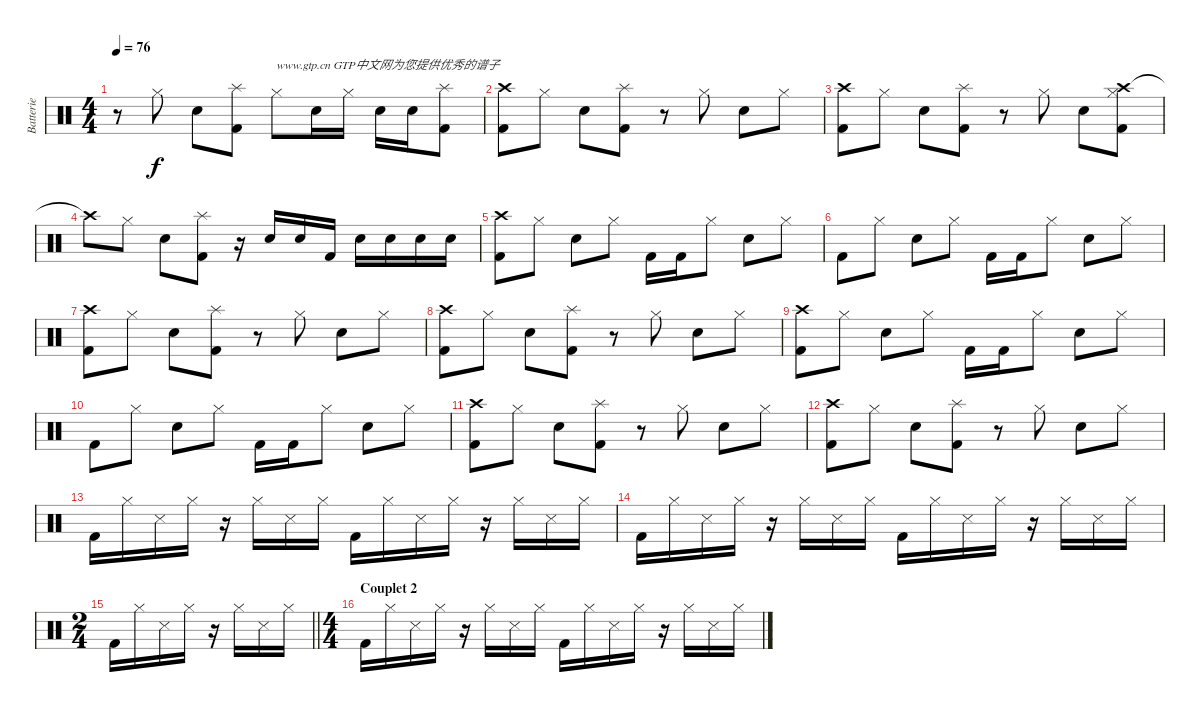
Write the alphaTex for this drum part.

\track ("Batterie" "Batterie") {instrument percussion}
\staff {score}
\articulation defaults
\ts (4 4)
\tempo 76
\clef neutral
\ks c
r.8{dy f} "Hi-Hat (closed)".8 "Electric Snare (hit)".8 ("Splash (hit)" "Kick (hit) 2").8 "Hi-Hat (closed)".8{txt "www.gtp.cn GTP中文网为您提供优秀的谱子"} "Electric Snare (hit)".16 "Hi-Hat (closed)".16 "Electric Snare (hit)".16 "Electric Snare (hit)".16 ("Splash (hit)" "Kick (hit) 2").8 |
("Crash high (hit)" "Kick (hit) 2").8 "Hi-Hat (closed)".8 "Electric Snare (hit)".8 ("Splash (hit)" "Kick (hit) 2").8 r.8 "Hi-Hat (closed)".8 "Electric Snare (hit)".8 "Hi-Hat (closed)".8 |
("Crash high (hit)" "Kick (hit) 2").8 "Hi-Hat (closed)".8 "Electric Snare (hit)".8 ("Splash (hit)" "Kick (hit) 2").8 r.8 "Hi-Hat (closed)".8 "Electric Snare (hit)".8 ("Crash high (hit)" "Hi-Hat (closed)" "Kick (hit) 2").8 |
"Crash high (hit)"{t}.8 "Hi-Hat (closed)".8 "Electric Snare (hit)".8 ("Splash (hit)" "Kick (hit) 2").8 r.16 "Electric Snare (hit)".16 "Electric Snare (hit)".16 "Kick (hit) 2".16 "Electric Snare (hit)".16 "Electric Snare (hit)".16 "Electric Snare (hit)".16 "Electric Snare (hit)".16 |
("Crash high (hit)" "Kick (hit) 2").8 "Hi-Hat (closed)".8 "Electric Snare (hit)".8 "Hi-Hat (closed)".8 "Kick (hit) 2".16 "Kick (hit) 2".16 "Hi-Hat (closed)".8 "Electric Snare (hit)".8 "Hi-Hat (closed)".8 |
"Kick (hit) 2".8 "Hi-Hat (closed)".8 "Electric Snare (hit)".8 "Hi-Hat (closed)".8 "Kick (hit) 2".16 "Kick (hit) 2".16 "Hi-Hat (closed)".8 "Electric Snare (hit)".8 "Hi-Hat (closed)".8 |
("Crash high (hit)" "Kick (hit) 2").8 "Hi-Hat (closed)".8 "Electric Snare (hit)".8 ("Splash (hit)" "Kick (hit) 2").8 r.8 "Hi-Hat (closed)".8 "Electric Snare (hit)".8 "Hi-Hat (closed)".8 |
("Crash high (hit)" "Kick (hit) 2").8 "Hi-Hat (closed)".8 "Electric Snare (hit)".8 ("Splash (hit)" "Kick (hit) 2").8 r.8 "Hi-Hat (closed)".8 "Electric Snare (hit)".8 "Hi-Hat (closed)".8 |
("Crash high (hit)" "Kick (hit) 2").8 "Hi-Hat (closed)".8 "Electric Snare (hit)".8 "Hi-Hat (closed)".8 "Kick (hit) 2".16 "Kick (hit) 2".16 "Hi-Hat (closed)".8 "Electric Snare (hit)".8 "Hi-Hat (closed)".8 |
"Kick (hit) 2".8 "Hi-Hat (closed)".8 "Electric Snare (hit)".8 "Hi-Hat (closed)".8 "Kick (hit) 2".16 "Kick (hit) 2".16 "Hi-Hat (closed)".8 "Electric Snare (hit)".8 "Hi-Hat (closed)".8 |
("Crash high (hit)" "Kick (hit) 2").8 "Hi-Hat (closed)".8 "Electric Snare (hit)".8 ("Splash (hit)" "Kick (hit) 2").8 r.8 "Hi-Hat (closed)".8 "Electric Snare (hit)".8 "Hi-Hat (closed)".8 |
("Crash high (hit)" "Kick (hit) 2").8 "Hi-Hat (closed)".8 "Electric Snare (hit)".8 ("Splash (hit)" "Kick (hit) 2").8 r.8 "Hi-Hat (closed)".8 "Electric Snare (hit)".8 "Hi-Hat (closed)".8 |
"Kick (hit) 2".16 "Hi-Hat (closed)".16 "Snare (side stick) 3".16 "Hi-Hat (closed)".16 r.16 "Hi-Hat (closed)".16 "Snare (side stick) 3".16 "Hi-Hat (closed)".16 "Kick (hit) 2".16 "Hi-Hat (closed)".16 "Snare (side stick) 3".16 "Hi-Hat (closed)".16 r.16 "Hi-Hat (closed)".16 "Snare (side stick) 3".16 "Hi-Hat (closed)".16 |
"Kick (hit) 2".16 "Hi-Hat (closed)".16 "Snare (side stick) 3".16 "Hi-Hat (closed)".16 r.16 "Hi-Hat (closed)".16 "Snare (side stick) 3".16 "Hi-Hat (closed)".16 "Kick (hit) 2".16 "Hi-Hat (closed)".16 "Snare (side stick) 3".16 "Hi-Hat (closed)".16 r.16 "Hi-Hat (closed)".16 "Snare (side stick) 3".16 "Hi-Hat (closed)".16 |
\ts (2 4)
\barLineRight lightlight "Kick (hit) 2".16 "Hi-Hat (closed)".16 "Snare (side stick) 3".16 "Hi-Hat (closed)".16
r.16 "Hi-Hat (closed)".16 "Snare (side stick) 3".16 "Hi-Hat (closed)".16 |
\ts (4 4)
\section ("" "Couplet 2")
"Kick (hit) 2".16 "Hi-Hat (closed)".16 "Snare (side stick) 3".16 "Hi-Hat (closed)".16 r.16 "Hi-Hat (closed)".16 "Snare (side stick) 3".16 "Hi-Hat (closed)".16 "Kick (hit) 2".16 "Hi-Hat (closed)".16 "Snare (side stick) 3".16 "Hi-Hat (closed)".16 r.16 "Hi-Hat (closed)".16 "Snare (side stick) 3".16 "Hi-Hat (closed)".16
